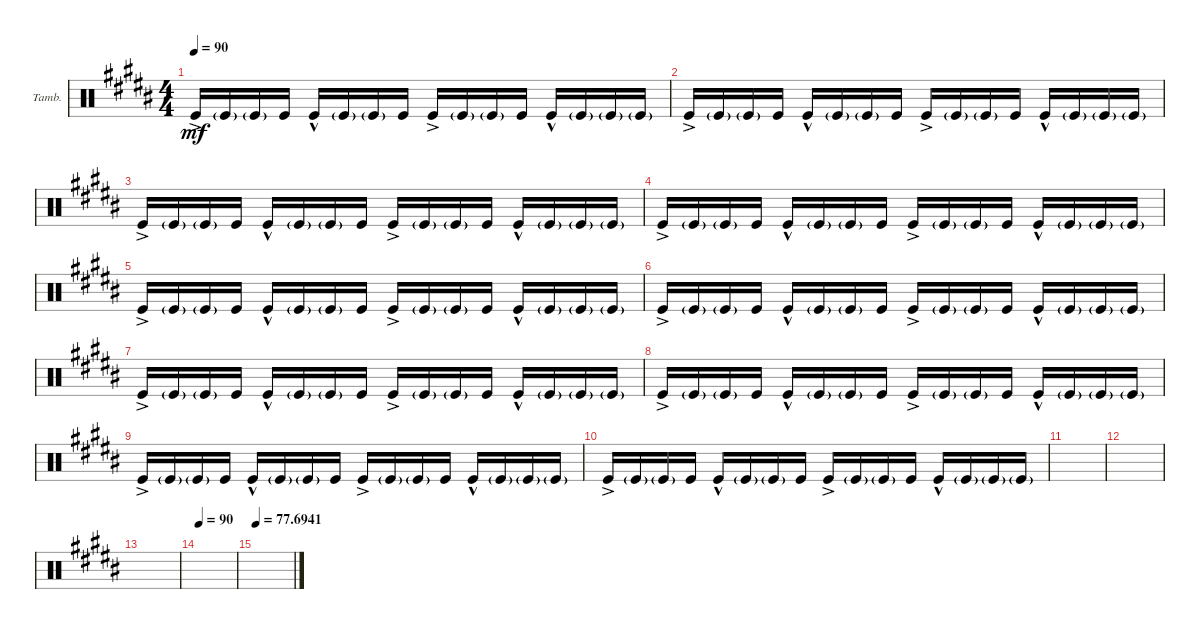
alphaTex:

\defaultSystemsLayout 4
\bracketExtendMode groupsimilarinstruments
\firstSystemTrackNameOrientation horizontal
\otherSystemsTrackNameOrientation horizontal
\track ("Tambourine" "Tamb.") {instrument percussion}
\staff {score}
\articulation defaults
\ts (4 4)
\tempo 90
\clef neutral
\ks b "Kick (hit)"{ac}.16{dy mf} "Kick (hit)"{g}.16 "Kick (hit)"{g}.16 "Kick (hit)".16 "Kick (hit)"{hac}.16 "Kick (hit)"{g}.16 "Kick (hit)"{g}.16 "Kick (hit)".16 "Kick (hit)"{ac}.16 "Kick (hit)"{g}.16 "Kick (hit)"{g}.16 "Kick (hit)".16 "Kick (hit)"{hac}.16 "Kick (hit)"{g}.16 "Kick (hit)"{g}.16 "Kick (hit)"{g}.16
|
"Kick (hit)"{ac}.16 "Kick (hit)"{g}.16 "Kick (hit)"{g}.16 "Kick (hit)".16 "Kick (hit)"{hac}.16 "Kick (hit)"{g}.16 "Kick (hit)"{g}.16 "Kick (hit)".16 "Kick (hit)"{ac}.16 "Kick (hit)"{g}.16 "Kick (hit)"{g}.16 "Kick (hit)".16 "Kick (hit)"{hac}.16 "Kick (hit)"{g}.16 "Kick (hit)"{g}.16 "Kick (hit)"{g}.16 |
"Kick (hit)"{ac}.16 "Kick (hit)"{g}.16 "Kick (hit)"{g}.16 "Kick (hit)".16 "Kick (hit)"{hac}.16 "Kick (hit)"{g}.16 "Kick (hit)"{g}.16 "Kick (hit)".16 "Kick (hit)"{ac}.16 "Kick (hit)"{g}.16 "Kick (hit)"{g}.16 "Kick (hit)".16 "Kick (hit)"{hac}.16 "Kick (hit)"{g}.16 "Kick (hit)"{g}.16 "Kick (hit)"{g}.16 |
"Kick (hit)"{ac}.16 "Kick (hit)"{g}.16 "Kick (hit)"{g}.16 "Kick (hit)".16 "Kick (hit)"{hac}.16 "Kick (hit)"{g}.16 "Kick (hit)"{g}.16 "Kick (hit)".16 "Kick (hit)"{ac}.16 "Kick (hit)"{g}.16 "Kick (hit)"{g}.16 "Kick (hit)".16 "Kick (hit)"{hac}.16 "Kick (hit)"{g}.16 "Kick (hit)"{g}.16 "Kick (hit)"{g}.16 |
"Kick (hit)"{ac}.16 "Kick (hit)"{g}.16 "Kick (hit)"{g}.16 "Kick (hit)".16 "Kick (hit)"{hac}.16 "Kick (hit)"{g}.16 "Kick (hit)"{g}.16 "Kick (hit)".16 "Kick (hit)"{ac}.16 "Kick (hit)"{g}.16 "Kick (hit)"{g}.16 "Kick (hit)".16 "Kick (hit)"{hac}.16 "Kick (hit)"{g}.16 "Kick (hit)"{g}.16 "Kick (hit)"{g}.16 |
"Kick (hit)"{ac}.16 "Kick (hit)"{g}.16 "Kick (hit)"{g}.16 "Kick (hit)".16 "Kick (hit)"{hac}.16 "Kick (hit)"{g}.16 "Kick (hit)"{g}.16 "Kick (hit)".16 "Kick (hit)"{ac}.16 "Kick (hit)"{g}.16 "Kick (hit)"{g}.16 "Kick (hit)".16 "Kick (hit)"{hac}.16 "Kick (hit)"{g}.16 "Kick (hit)"{g}.16 "Kick (hit)"{g}.16 |
"Kick (hit)"{ac}.16 "Kick (hit)"{g}.16 "Kick (hit)"{g}.16 "Kick (hit)".16 "Kick (hit)"{hac}.16 "Kick (hit)"{g}.16 "Kick (hit)"{g}.16 "Kick (hit)".16 "Kick (hit)"{ac}.16 "Kick (hit)"{g}.16 "Kick (hit)"{g}.16 "Kick (hit)".16 "Kick (hit)"{hac}.16 "Kick (hit)"{g}.16 "Kick (hit)"{g}.16 "Kick (hit)"{g}.16 |
"Kick (hit)"{ac}.16 "Kick (hit)"{g}.16 "Kick (hit)"{g}.16 "Kick (hit)".16 "Kick (hit)"{hac}.16 "Kick (hit)"{g}.16 "Kick (hit)"{g}.16 "Kick (hit)".16 "Kick (hit)"{ac}.16 "Kick (hit)"{g}.16 "Kick (hit)"{g}.16 "Kick (hit)".16 "Kick (hit)"{hac}.16 "Kick (hit)"{g}.16 "Kick (hit)"{g}.16 "Kick (hit)"{g}.16 |
"Kick (hit)"{ac}.16 "Kick (hit)"{g}.16 "Kick (hit)"{g}.16 "Kick (hit)".16 "Kick (hit)"{hac}.16 "Kick (hit)"{g}.16 "Kick (hit)"{g}.16 "Kick (hit)".16 "Kick (hit)"{ac}.16 "Kick (hit)"{g}.16 "Kick (hit)"{g}.16 "Kick (hit)".16 "Kick (hit)"{hac}.16 "Kick (hit)"{g}.16 "Kick (hit)"{g}.16 "Kick (hit)"{g}.16 |
"Kick (hit)"{ac}.16 "Kick (hit)"{g}.16 "Kick (hit)"{g}.16 "Kick (hit)".16 "Kick (hit)"{hac}.16 "Kick (hit)"{g}.16 "Kick (hit)"{g}.16 "Kick (hit)".16 "Kick (hit)"{ac}.16 "Kick (hit)"{g}.16 "Kick (hit)"{g}.16 "Kick (hit)".16 "Kick (hit)"{hac}.16 "Kick (hit)"{g}.16 "Kick (hit)"{g}.16 "Kick (hit)"{g}.16 |
|
|
|
\tempo 90
|
\tempo
77.6941
